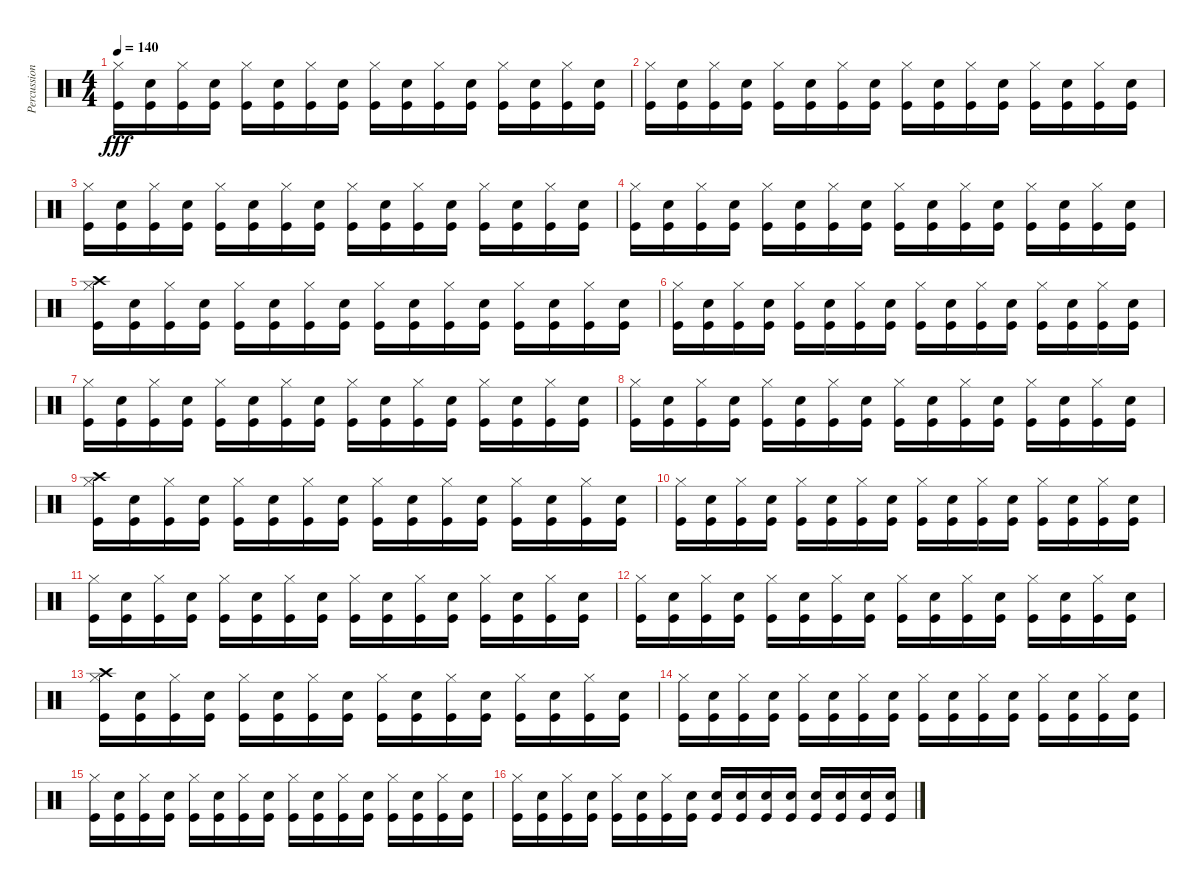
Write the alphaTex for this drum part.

\track ("Percussion" "Percussion") {instrument percussion}
\staff {score}
\articulation defaults
\ts (4 4)
\tempo 140
\clef neutral
\ks c
("Hi-Hat (closed)" "Kick (hit)").16{dy fff} ("Snare (hit) 2" "Kick (hit)").16 ("Hi-Hat (closed)" "Kick (hit)").16 ("Snare (hit) 2" "Kick (hit)").16 ("Hi-Hat (closed)" "Kick (hit)").16 ("Snare (hit) 2" "Kick (hit)").16 ("Hi-Hat (closed)" "Kick (hit)").16 ("Snare (hit) 2" "Kick (hit)").16 ("Hi-Hat (closed)" "Kick (hit)").16 ("Snare (hit) 2" "Kick (hit)").16 ("Hi-Hat (closed)" "Kick (hit)").16 ("Snare (hit) 2" "Kick (hit)").16 ("Hi-Hat (closed)" "Kick (hit)").16 ("Snare (hit) 2" "Kick (hit)").16 ("Hi-Hat (closed)" "Kick (hit)").16 ("Snare (hit) 2" "Kick (hit)").16 |
("Hi-Hat (closed)" "Kick (hit)").16 ("Snare (hit) 2" "Kick (hit)").16 ("Hi-Hat (closed)" "Kick (hit)").16 ("Snare (hit) 2" "Kick (hit)").16 ("Hi-Hat (closed)" "Kick (hit)").16 ("Snare (hit) 2" "Kick (hit)").16 ("Hi-Hat (closed)" "Kick (hit)").16 ("Snare (hit) 2" "Kick (hit)").16 ("Hi-Hat (closed)" "Kick (hit)").16 ("Snare (hit) 2" "Kick (hit)").16 ("Hi-Hat (closed)" "Kick (hit)").16 ("Snare (hit) 2" "Kick (hit)").16 ("Hi-Hat (closed)" "Kick (hit)").16 ("Snare (hit) 2" "Kick (hit)").16 ("Hi-Hat (closed)" "Kick (hit)").16 ("Snare (hit) 2" "Kick (hit)").16 |
("Hi-Hat (closed)" "Kick (hit)").16 ("Snare (hit) 2" "Kick (hit)").16 ("Hi-Hat (closed)" "Kick (hit)").16 ("Snare (hit) 2" "Kick (hit)").16 ("Hi-Hat (closed)" "Kick (hit)").16 ("Snare (hit) 2" "Kick (hit)").16 ("Hi-Hat (closed)" "Kick (hit)").16 ("Snare (hit) 2" "Kick (hit)").16 ("Hi-Hat (closed)" "Kick (hit)").16 ("Snare (hit) 2" "Kick (hit)").16 ("Hi-Hat (closed)" "Kick (hit)").16 ("Snare (hit) 2" "Kick (hit)").16 ("Hi-Hat (closed)" "Kick (hit)").16 ("Snare (hit) 2" "Kick (hit)").16 ("Hi-Hat (closed)" "Kick (hit)").16 ("Snare (hit) 2" "Kick (hit)").16 |
("Hi-Hat (closed)" "Kick (hit)").16 ("Snare (hit) 2" "Kick (hit)").16 ("Hi-Hat (closed)" "Kick (hit)").16 ("Snare (hit) 2" "Kick (hit)").16 ("Hi-Hat (closed)" "Kick (hit)").16 ("Snare (hit) 2" "Kick (hit)").16 ("Hi-Hat (closed)" "Kick (hit)").16 ("Snare (hit) 2" "Kick (hit)").16 ("Hi-Hat (closed)" "Kick (hit)").16 ("Snare (hit) 2" "Kick (hit)").16 ("Hi-Hat (closed)" "Kick (hit)").16 ("Snare (hit) 2" "Kick (hit)").16 ("Hi-Hat (closed)" "Kick (hit)").16 ("Snare (hit) 2" "Kick (hit)").16 ("Hi-Hat (closed)" "Kick (hit)").16 ("Snare (hit) 2" "Kick (hit)").16 |
("Crash high (hit)" "Hi-Hat (closed)" "Kick (hit)").16 ("Snare (hit) 2" "Kick (hit)").16 ("Hi-Hat (closed)" "Kick (hit)").16 ("Snare (hit) 2" "Kick (hit)").16 ("Hi-Hat (closed)" "Kick (hit)").16 ("Snare (hit) 2" "Kick (hit)").16 ("Hi-Hat (closed)" "Kick (hit)").16 ("Snare (hit) 2" "Kick (hit)").16 ("Hi-Hat (closed)" "Kick (hit)").16 ("Snare (hit) 2" "Kick (hit)").16 ("Hi-Hat (closed)" "Kick (hit)").16 ("Snare (hit) 2" "Kick (hit)").16 ("Hi-Hat (closed)" "Kick (hit)").16 ("Snare (hit) 2" "Kick (hit)").16 ("Hi-Hat (closed)" "Kick (hit)").16 ("Snare (hit) 2" "Kick (hit)").16 |
("Hi-Hat (closed)" "Kick (hit)").16 ("Snare (hit) 2" "Kick (hit)").16 ("Hi-Hat (closed)" "Kick (hit)").16 ("Snare (hit) 2" "Kick (hit)").16 ("Hi-Hat (closed)" "Kick (hit)").16 ("Snare (hit) 2" "Kick (hit)").16 ("Hi-Hat (closed)" "Kick (hit)").16 ("Snare (hit) 2" "Kick (hit)").16 ("Hi-Hat (closed)" "Kick (hit)").16 ("Snare (hit) 2" "Kick (hit)").16 ("Hi-Hat (closed)" "Kick (hit)").16 ("Snare (hit) 2" "Kick (hit)").16 ("Hi-Hat (closed)" "Kick (hit)").16 ("Snare (hit) 2" "Kick (hit)").16 ("Hi-Hat (closed)" "Kick (hit)").16 ("Snare (hit) 2" "Kick (hit)").16 |
("Hi-Hat (closed)" "Kick (hit)").16 ("Snare (hit) 2" "Kick (hit)").16 ("Hi-Hat (closed)" "Kick (hit)").16 ("Snare (hit) 2" "Kick (hit)").16 ("Hi-Hat (closed)" "Kick (hit)").16 ("Snare (hit) 2" "Kick (hit)").16 ("Hi-Hat (closed)" "Kick (hit)").16 ("Snare (hit) 2" "Kick (hit)").16 ("Hi-Hat (closed)" "Kick (hit)").16 ("Snare (hit) 2" "Kick (hit)").16 ("Hi-Hat (closed)" "Kick (hit)").16 ("Snare (hit) 2" "Kick (hit)").16 ("Hi-Hat (closed)" "Kick (hit)").16 ("Snare (hit) 2" "Kick (hit)").16 ("Hi-Hat (closed)" "Kick (hit)").16 ("Snare (hit) 2" "Kick (hit)").16 |
("Hi-Hat (closed)" "Kick (hit)").16 ("Snare (hit) 2" "Kick (hit)").16 ("Hi-Hat (closed)" "Kick (hit)").16 ("Snare (hit) 2" "Kick (hit)").16 ("Hi-Hat (closed)" "Kick (hit)").16 ("Snare (hit) 2" "Kick (hit)").16 ("Hi-Hat (closed)" "Kick (hit)").16 ("Snare (hit) 2" "Kick (hit)").16 ("Hi-Hat (closed)" "Kick (hit)").16 ("Snare (hit) 2" "Kick (hit)").16 ("Hi-Hat (closed)" "Kick (hit)").16 ("Snare (hit) 2" "Kick (hit)").16 ("Hi-Hat (closed)" "Kick (hit)").16 ("Snare (hit) 2" "Kick (hit)").16 ("Hi-Hat (closed)" "Kick (hit)").16 ("Snare (hit) 2" "Kick (hit)").16 |
("Crash high (hit)" "Hi-Hat (closed)" "Kick (hit)").16 ("Snare (hit) 2" "Kick (hit)").16 ("Hi-Hat (closed)" "Kick (hit)").16 ("Snare (hit) 2" "Kick (hit)").16 ("Hi-Hat (closed)" "Kick (hit)").16 ("Snare (hit) 2" "Kick (hit)").16 ("Hi-Hat (closed)" "Kick (hit)").16 ("Snare (hit) 2" "Kick (hit)").16 ("Hi-Hat (closed)" "Kick (hit)").16 ("Snare (hit) 2" "Kick (hit)").16 ("Hi-Hat (closed)" "Kick (hit)").16 ("Snare (hit) 2" "Kick (hit)").16 ("Hi-Hat (closed)" "Kick (hit)").16 ("Snare (hit) 2" "Kick (hit)").16 ("Hi-Hat (closed)" "Kick (hit)").16 ("Snare (hit) 2" "Kick (hit)").16 |
("Hi-Hat (closed)" "Kick (hit)").16 ("Snare (hit) 2" "Kick (hit)").16 ("Hi-Hat (closed)" "Kick (hit)").16 ("Snare (hit) 2" "Kick (hit)").16 ("Hi-Hat (closed)" "Kick (hit)").16 ("Snare (hit) 2" "Kick (hit)").16 ("Hi-Hat (closed)" "Kick (hit)").16 ("Snare (hit) 2" "Kick (hit)").16 ("Hi-Hat (closed)" "Kick (hit)").16 ("Snare (hit) 2" "Kick (hit)").16 ("Hi-Hat (closed)" "Kick (hit)").16 ("Snare (hit) 2" "Kick (hit)").16 ("Hi-Hat (closed)" "Kick (hit)").16 ("Snare (hit) 2" "Kick (hit)").16 ("Hi-Hat (closed)" "Kick (hit)").16 ("Snare (hit) 2" "Kick (hit)").16 |
("Hi-Hat (closed)" "Kick (hit)").16 ("Snare (hit) 2" "Kick (hit)").16 ("Hi-Hat (closed)" "Kick (hit)").16 ("Snare (hit) 2" "Kick (hit)").16 ("Hi-Hat (closed)" "Kick (hit)").16 ("Snare (hit) 2" "Kick (hit)").16 ("Hi-Hat (closed)" "Kick (hit)").16 ("Snare (hit) 2" "Kick (hit)").16 ("Hi-Hat (closed)" "Kick (hit)").16 ("Snare (hit) 2" "Kick (hit)").16 ("Hi-Hat (closed)" "Kick (hit)").16 ("Snare (hit) 2" "Kick (hit)").16 ("Hi-Hat (closed)" "Kick (hit)").16 ("Snare (hit) 2" "Kick (hit)").16 ("Hi-Hat (closed)" "Kick (hit)").16 ("Snare (hit) 2" "Kick (hit)").16 |
("Hi-Hat (closed)" "Kick (hit)").16 ("Snare (hit) 2" "Kick (hit)").16 ("Hi-Hat (closed)" "Kick (hit)").16 ("Snare (hit) 2" "Kick (hit)").16 ("Hi-Hat (closed)" "Kick (hit)").16 ("Snare (hit) 2" "Kick (hit)").16 ("Hi-Hat (closed)" "Kick (hit)").16 ("Snare (hit) 2" "Kick (hit)").16 ("Hi-Hat (closed)" "Kick (hit)").16 ("Snare (hit) 2" "Kick (hit)").16 ("Hi-Hat (closed)" "Kick (hit)").16 ("Snare (hit) 2" "Kick (hit)").16 ("Hi-Hat (closed)" "Kick (hit)").16 ("Snare (hit) 2" "Kick (hit)").16 ("Hi-Hat (closed)" "Kick (hit)").16 ("Snare (hit) 2" "Kick (hit)").16 |
("Crash high (hit)" "Hi-Hat (closed)" "Kick (hit)").16 ("Snare (hit) 2" "Kick (hit)").16 ("Hi-Hat (closed)" "Kick (hit)").16 ("Snare (hit) 2" "Kick (hit)").16 ("Hi-Hat (closed)" "Kick (hit)").16 ("Snare (hit) 2" "Kick (hit)").16 ("Hi-Hat (closed)" "Kick (hit)").16 ("Snare (hit) 2" "Kick (hit)").16 ("Hi-Hat (closed)" "Kick (hit)").16 ("Snare (hit) 2" "Kick (hit)").16 ("Hi-Hat (closed)" "Kick (hit)").16 ("Snare (hit) 2" "Kick (hit)").16 ("Hi-Hat (closed)" "Kick (hit)").16 ("Snare (hit) 2" "Kick (hit)").16 ("Hi-Hat (closed)" "Kick (hit)").16 ("Snare (hit) 2" "Kick (hit)").16 |
("Hi-Hat (closed)" "Kick (hit)").16 ("Snare (hit) 2" "Kick (hit)").16 ("Hi-Hat (closed)" "Kick (hit)").16 ("Snare (hit) 2" "Kick (hit)").16 ("Hi-Hat (closed)" "Kick (hit)").16 ("Snare (hit) 2" "Kick (hit)").16 ("Hi-Hat (closed)" "Kick (hit)").16 ("Snare (hit) 2" "Kick (hit)").16 ("Hi-Hat (closed)" "Kick (hit)").16 ("Snare (hit) 2" "Kick (hit)").16 ("Hi-Hat (closed)" "Kick (hit)").16 ("Snare (hit) 2" "Kick (hit)").16 ("Hi-Hat (closed)" "Kick (hit)").16 ("Snare (hit) 2" "Kick (hit)").16 ("Hi-Hat (closed)" "Kick (hit)").16 ("Snare (hit) 2" "Kick (hit)").16 |
("Hi-Hat (closed)" "Kick (hit)").16 ("Snare (hit) 2" "Kick (hit)").16 ("Hi-Hat (closed)" "Kick (hit)").16 ("Snare (hit) 2" "Kick (hit)").16 ("Hi-Hat (closed)" "Kick (hit)").16 ("Snare (hit) 2" "Kick (hit)").16 ("Hi-Hat (closed)" "Kick (hit)").16 ("Snare (hit) 2" "Kick (hit)").16 ("Hi-Hat (closed)" "Kick (hit)").16 ("Snare (hit) 2" "Kick (hit)").16 ("Hi-Hat (closed)" "Kick (hit)").16 ("Snare (hit) 2" "Kick (hit)").16 ("Hi-Hat (closed)" "Kick (hit)").16 ("Snare (hit) 2" "Kick (hit)").16 ("Hi-Hat (closed)" "Kick (hit)").16 ("Snare (hit) 2" "Kick (hit)").16 |
("Hi-Hat (closed)" "Kick (hit)").16 ("Snare (hit) 2" "Kick (hit)").16 ("Hi-Hat (closed)" "Kick (hit)").16 ("Snare (hit) 2" "Kick (hit)").16 ("Hi-Hat (closed)" "Kick (hit)").16 ("Snare (hit) 2" "Kick (hit)").16 ("Hi-Hat (closed)" "Kick (hit)").16 ("Snare (hit) 2" "Kick (hit)").16 ("Snare (hit) 2" "Kick (hit)").16 ("Snare (hit) 2" "Kick (hit)").16 ("Snare (hit) 2" "Kick (hit)").16 ("Snare (hit) 2" "Kick (hit)").16 ("Snare (hit) 2" "Kick (hit)").16 ("Snare (hit) 2" "Kick (hit)").16 ("Snare (hit) 2" "Kick (hit)").16 ("Snare (hit) 2" "Kick (hit)").16
